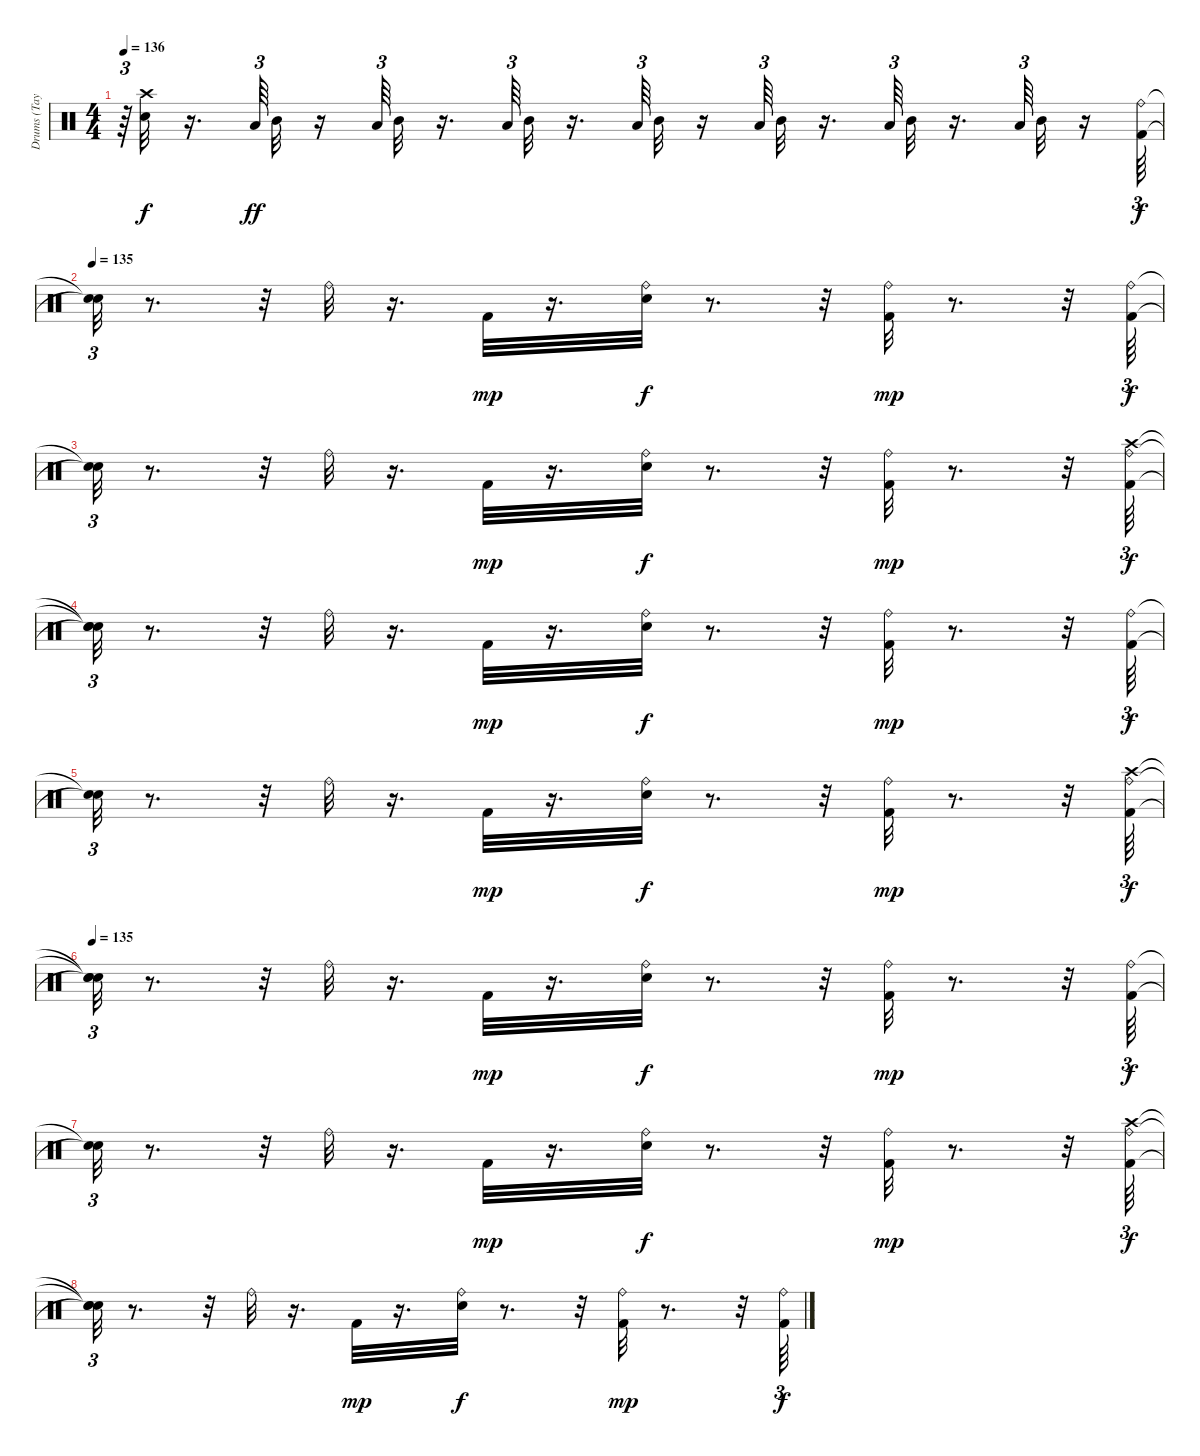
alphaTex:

\track ("Drums (Taylor)" "Drums (Tay") {instrument percussion}
\staff {score}
\articulation defaults
\ts (4 4)
\tempo 136
\clef neutral
\ks c
r.64{tu (3 2) dy f} ("Snare (hit) 2" "Crash high (hit)").32 r.16{d} "Low Floor Tom (hit)".64{tu (3 2) dy ff} "Mid Tom (hit)".32 r.16 "Low Floor Tom (hit)".64{tu (3 2)} "Mid Tom (hit)".32 r.16{d} "Low Floor Tom (hit)".64{tu (3 2)} "Mid Tom (hit)".32 r.16{d} "Low Floor Tom (hit)".64{tu (3 2)} "Mid Tom (hit)".32 r.16 "Low Floor Tom (hit)".64{tu (3 2)} "Mid Tom (hit)".32 r.16{d} "Low Floor Tom (hit)".64{tu (3 2)} "Mid Tom (hit)".32 r.16{d} "Low Floor Tom (hit)".64{tu (3 2)} "Mid Tom (hit)".32 r.16 ("Ride (bell)" "Kick (hit) 2").64{tu (3 2) dy f} |
\tempo 135
("Snare (hit)"{t} "Snare (hit)"{t}).32{tu (3 2)} r.8{d} r.32 "Ride (bell)".32 r.16{d} "Kick (hit) 2".32{dy mp} r.16{d} ("Snare (hit) 2" "Ride (bell)").32{dy f} r.8{d} r.32 ("Kick (hit) 2" "Ride (bell)").32{dy mp} r.8{d} r.32 ("Ride (bell)" "Kick (hit) 2").64{tu (3 2) dy f} |
("Snare (hit)"{t} "Snare (hit)"{t}).32{tu (3 2)} r.8{d} r.32 "Ride (bell)".32 r.16{d} "Kick (hit) 2".32{dy mp} r.16{d} ("Snare (hit) 2" "Ride (bell)").32{dy f} r.8{d} r.32 ("Kick (hit) 2" "Ride (bell)").32{dy mp} r.8{d} r.32 ("Crash high (hit)" "Ride (bell)" "Kick (hit) 2").64{tu (3 2) dy f} |
("Snare (hit)"{t} "Snare (hit)"{t} "Snare (hit)"{t}).32{tu (3 2)} r.8{d} r.32 "Ride (bell)".32 r.16{d} "Kick (hit) 2".32{dy mp} r.16{d} ("Snare (hit) 2" "Ride (bell)").32{dy f} r.8{d} r.32 ("Kick (hit) 2" "Ride (bell)").32{dy mp} r.8{d} r.32 ("Ride (bell)" "Kick (hit) 2").64{tu (3 2) dy f} |
("Snare (hit)"{t} "Snare (hit)"{t}).32{tu (3 2)} r.8{d} r.32 "Ride (bell)".32 r.16{d} "Kick (hit) 2".32{dy mp} r.16{d} ("Snare (hit) 2" "Ride (bell)").32{dy f} r.8{d} r.32 ("Kick (hit) 2" "Ride (bell)").32{dy mp} r.8{d} r.32 ("Crash high (hit)" "Ride (bell)" "Kick (hit) 2").64{tu (3 2) dy f} |
\tempo 135
("Snare (hit)"{t} "Snare (hit)"{t} "Snare (hit)"{t}).32{tu (3 2)} r.8{d} r.32 "Ride (bell)".32 r.16{d} "Kick (hit) 2".32{dy mp} r.16{d} ("Snare (hit) 2" "Ride (bell)").32{dy f} r.8{d} r.32 ("Kick (hit) 2" "Ride (bell)").32{dy mp} r.8{d} r.32 ("Ride (bell)" "Kick (hit) 2").64{tu (3 2) dy f} |
("Snare (hit)"{t} "Snare (hit)"{t}).32{tu (3 2)} r.8{d} r.32 "Ride (bell)".32 r.16{d} "Kick (hit) 2".32{dy mp} r.16{d} ("Snare (hit) 2" "Ride (bell)").32{dy f} r.8{d} r.32 ("Kick (hit) 2" "Ride (bell)").32{dy mp} r.8{d} r.32 ("Crash high (hit)" "Ride (bell)" "Kick (hit) 2").64{tu (3 2) dy f} |
("Snare (hit)"{t} "Snare (hit)"{t} "Snare (hit)"{t}).32{tu (3 2)} r.8{d} r.32 "Ride (bell)".32 r.16{d} "Kick (hit) 2".32{dy mp} r.16{d} ("Snare (hit) 2" "Ride (bell)").32{dy f} r.8{d} r.32 ("Kick (hit) 2" "Ride (bell)").32{dy mp} r.8{d} r.32 ("Ride (bell)" "Kick (hit) 2").64{tu (3 2) dy f}
